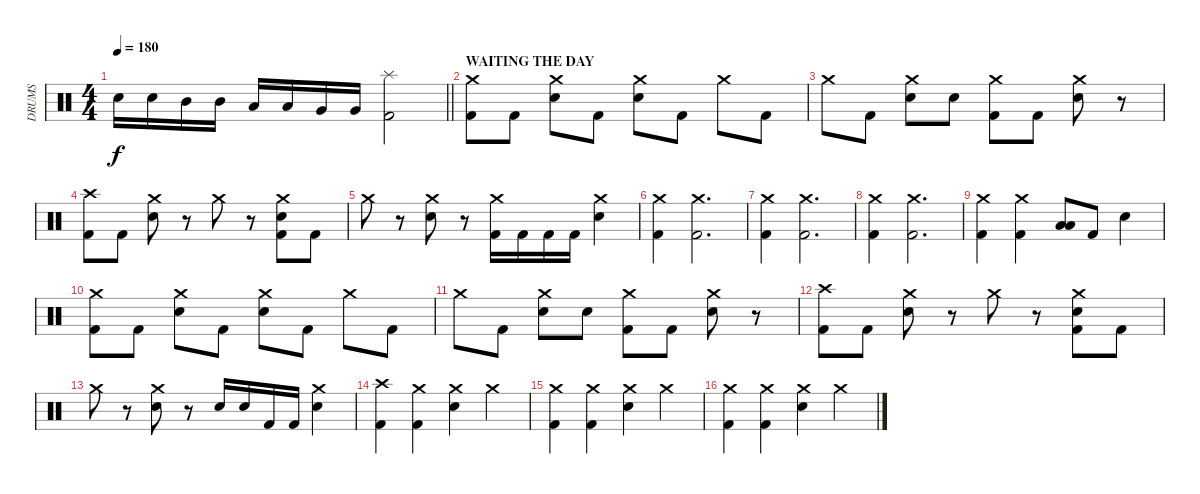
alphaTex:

\track ("DRUMS" "DRUMS") {instrument percussion}
\staff {score}
\articulation defaults
\ts (4 4)
\tempo 180
\clef neutral
\barLineRight lightlight
\ks c "Electric Snare (hit)".16{dy f} "Electric Snare (hit)".16 "Mid Tom (hit)".16 "Mid Tom (hit)".16 "Low Tom (hit)".16 "Low Tom (hit)".16 "Very Low Tom (hit)".16 "Very Low Tom (hit)".16
("Splash (hit)" "Kick (hit) 2").2 |
\section ("" "WAITING THE DAY")
("Crash medium (hit)" "Kick (hit) 2").8 "Kick (hit) 2".8 ("Crash medium (hit)" "Electric Snare (hit)").8 "Kick (hit) 2".8 ("Crash medium (hit)" "Electric Snare (hit)").8 "Kick (hit) 2".8 "Crash medium (hit)".8 "Kick (hit) 2".8 |
"Crash medium (hit)".8 "Kick (hit) 2".8 ("Crash medium (hit)" "Electric Snare (hit)").8 "Electric Snare (hit)".8 ("Crash medium (hit)" "Kick (hit) 2").8 "Kick (hit) 2".8 ("Crash medium (hit)" "Electric Snare (hit)").8 r.8 |
("Crash high (hit)" "Kick (hit) 2").8 "Kick (hit) 2".8 ("Crash medium (hit)" "Electric Snare (hit)").8 r.8 "Crash medium (hit)".8 r.8 ("Crash medium (hit)" "Electric Snare (hit)" "Kick (hit) 2").8 "Kick (hit) 2".8 |
"Crash medium (hit)".8 r.8 ("Crash medium (hit)" "Electric Snare (hit)").8 r.8 ("Crash medium (hit)" "Kick (hit) 2").16 "Kick (hit) 2".16 "Kick (hit) 2".16 "Kick (hit) 2".16 ("Crash medium (hit)" "Electric Snare (hit)").4 |
("Crash medium (hit)" "Kick (hit) 2").4 ("Crash medium (hit)" "Kick (hit) 2").2{d} |
("Crash medium (hit)" "Kick (hit) 2").4 ("Crash medium (hit)" "Kick (hit) 2").2{d} |
("Crash medium (hit)" "Kick (hit) 2").4 ("Crash medium (hit)" "Kick (hit) 2").2{d} |
("Crash medium (hit)" "Kick (hit) 2").4 ("Crash medium (hit)" "Kick (hit) 2").4 ("Low Tom (hit)" "Low Floor Tom (hit)").8 "Kick (hit) 2".8 "Electric Snare (hit)".4 |
("Crash medium (hit)" "Kick (hit) 2").8 "Kick (hit) 2".8 ("Crash medium (hit)" "Electric Snare (hit)").8 "Kick (hit) 2".8 ("Crash medium (hit)" "Electric Snare (hit)").8 "Kick (hit) 2".8 "Crash medium (hit)".8 "Kick (hit) 2".8 |
"Crash medium (hit)".8 "Kick (hit) 2".8 ("Crash medium (hit)" "Electric Snare (hit)").8 "Electric Snare (hit)".8 ("Crash medium (hit)" "Kick (hit) 2").8 "Kick (hit) 2".8 ("Crash medium (hit)" "Electric Snare (hit)").8 r.8 |
("Crash high (hit)" "Kick (hit) 2").8 "Kick (hit) 2".8 ("Crash medium (hit)" "Electric Snare (hit)").8 r.8 "Crash medium (hit)".8 r.8 ("Crash medium (hit)" "Electric Snare (hit)" "Kick (hit) 2").8 "Kick (hit) 2".8 |
"Crash medium (hit)".8 r.8 ("Crash medium (hit)" "Electric Snare (hit)").8 r.8 "Electric Snare (hit)".16 "Electric Snare (hit)".16 "Kick (hit) 2".16 "Kick (hit) 2".16 ("Crash medium (hit)" "Electric Snare (hit)").4 |
("Crash high (hit)" "Kick (hit) 2").4 ("Crash medium (hit)" "Kick (hit) 2").4 ("Crash medium (hit)" "Electric Snare (hit)").4 "Crash medium (hit)".4 |
("Crash medium (hit)" "Kick (hit) 2").4 ("Crash medium (hit)" "Kick (hit) 2").4 ("Crash medium (hit)" "Electric Snare (hit)").4 "Crash medium (hit)".4 |
("Crash medium (hit)" "Kick (hit) 2").4 ("Crash medium (hit)" "Kick (hit) 2").4 ("Crash medium (hit)" "Electric Snare (hit)").4 "Crash medium (hit)".4
